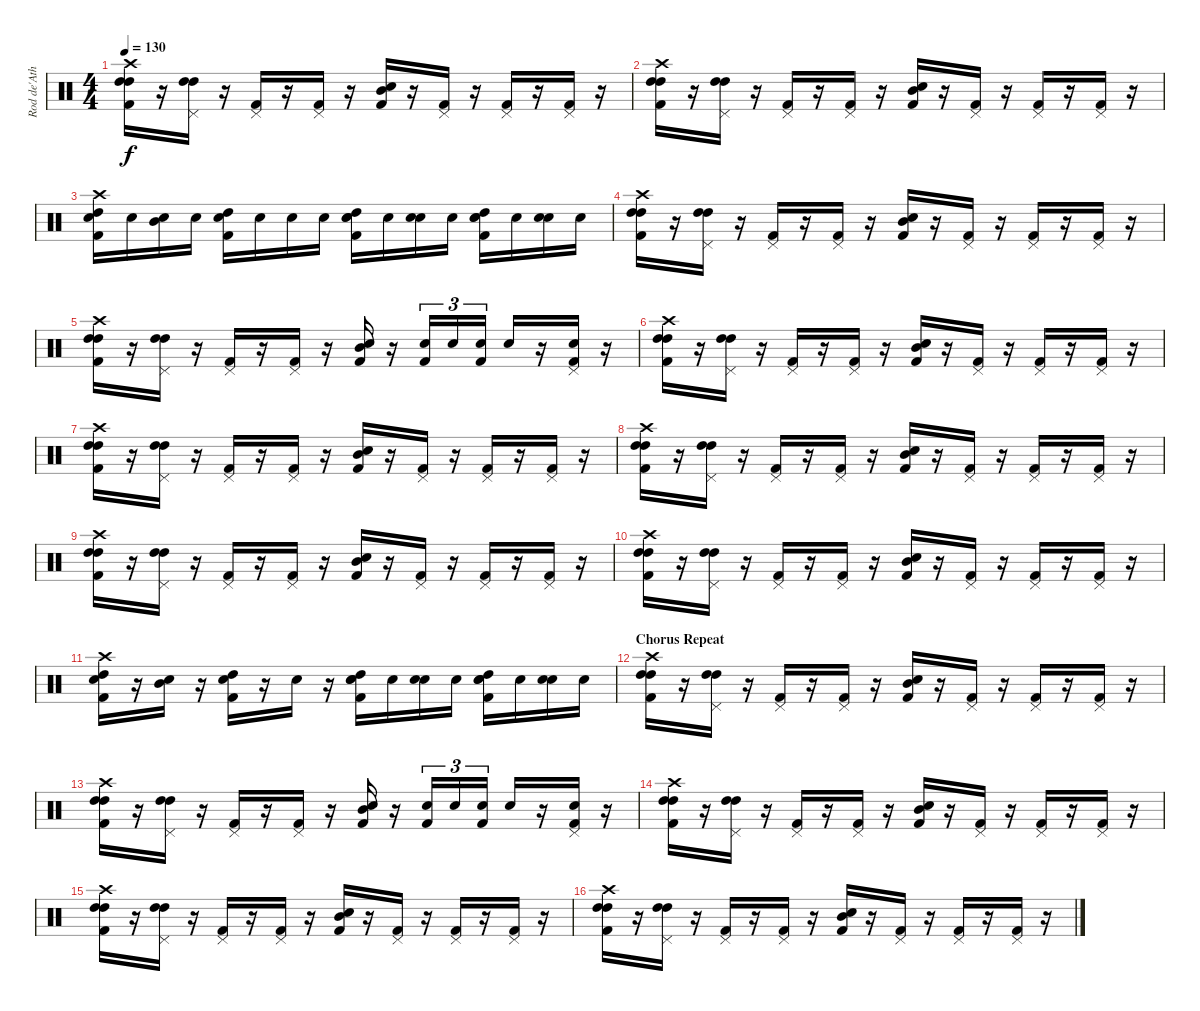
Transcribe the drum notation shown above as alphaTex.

\track ("Rod de'Ath" "Rod de'Ath") {instrument percussion}
\staff {score}
\articulation defaults
\ts (4 4)
\tempo 130
\clef neutral
\ks c
("Crash high (hit)" "High Tom (hit)" "High Tom (hit)" "Kick (hit) 2").16{dy f} r.16 ("Pedal Hi-Hat (hit)" "High Tom (hit)" "High Tom (hit)").16 r.16 ("Pedal Hi-Hat (hit)" "Kick (hit) 2").16 r.16 ("Pedal Hi-Hat (hit)" "Kick (hit) 2").16 r.16 ("Snare (hit) 2" "Mid Tom (hit)" "Kick (hit) 2").16 r.16 ("Pedal Hi-Hat (hit)" "Kick (hit) 2").16 r.16 ("Pedal Hi-Hat (hit)" "Kick (hit) 2").16 r.16 ("Pedal Hi-Hat (hit)" "Kick (hit) 2").16 r.16 |
("Crash high (hit)" "High Tom (hit)" "High Tom (hit)" "Kick (hit) 2").16 r.16 ("Pedal Hi-Hat (hit)" "High Tom (hit)" "High Tom (hit)").16 r.16 ("Pedal Hi-Hat (hit)" "Kick (hit) 2").16 r.16 ("Pedal Hi-Hat (hit)" "Kick (hit) 2").16 r.16 ("Snare (hit) 2" "Mid Tom (hit)" "Kick (hit) 2").16 r.16 ("Pedal Hi-Hat (hit)" "Kick (hit) 2").16 r.16 ("Pedal Hi-Hat (hit)" "Kick (hit) 2").16 r.16 ("Pedal Hi-Hat (hit)" "Kick (hit) 2").16 r.16 |
("Crash high (hit)" "High Tom (hit)" "Snare (hit) 2" "Kick (hit) 2").16 "Snare (hit) 2".16 ("Mid Tom (hit)" "Snare (hit) 2").16 "Snare (hit) 2".16 ("High Tom (hit)" "Snare (hit) 2" "Kick (hit) 2").16 "Snare (hit) 2".16 "Snare (hit) 2".16 "Snare (hit) 2".16 ("Snare (hit) 2" "High Tom (hit)" "Electric Snare (hit)" "Kick (hit) 2").16 "Electric Snare (hit)".16 ("Snare (hit) 2" "Electric Snare (hit)").16 "Electric Snare (hit)".16 ("Snare (hit) 2" "High Tom (hit)" "Electric Snare (hit)" "Kick (hit) 2").16 "Electric Snare (hit)".16 ("Snare (hit) 2" "Electric Snare (hit)").16 "Electric Snare (hit)".16 |
("Crash high (hit)" "High Tom (hit)" "High Tom (hit)" "Kick (hit) 2").16 r.16 ("Pedal Hi-Hat (hit)" "High Tom (hit)" "High Tom (hit)").16 r.16 ("Pedal Hi-Hat (hit)" "Kick (hit) 2").16 r.16 ("Pedal Hi-Hat (hit)" "Kick (hit) 2").16 r.16 ("Snare (hit) 2" "Mid Tom (hit)" "Kick (hit) 2").16 r.16 ("Pedal Hi-Hat (hit)" "Kick (hit) 2").16 r.16 ("Pedal Hi-Hat (hit)" "Kick (hit) 2").16 r.16 ("Pedal Hi-Hat (hit)" "Kick (hit) 2").16 r.16 |
("Crash high (hit)" "High Tom (hit)" "High Tom (hit)" "Kick (hit) 2").16 r.16 ("Pedal Hi-Hat (hit)" "High Tom (hit)" "High Tom (hit)").16 r.16 ("Pedal Hi-Hat (hit)" "Kick (hit) 2").16 r.16 ("Pedal Hi-Hat (hit)" "Kick (hit) 2").16 r.16 ("Snare (hit) 2" "Mid Tom (hit)" "Kick (hit) 2").16 r.16 ("Electric Snare (hit)" "Kick (hit) 2").16{tu (3 2)} "Electric Snare (hit)".16{tu (3 2)} ("Electric Snare (hit)" "Kick (hit) 2").16{tu (3 2)} "Electric Snare (hit)".16 r.16 ("Electric Snare (hit)" "Pedal Hi-Hat (hit)" "Kick (hit) 2").16 r.16 |
("Crash high (hit)" "High Tom (hit)" "High Tom (hit)" "Kick (hit) 2").16 r.16 ("Pedal Hi-Hat (hit)" "High Tom (hit)" "High Tom (hit)").16 r.16 ("Pedal Hi-Hat (hit)" "Kick (hit) 2").16 r.16 ("Pedal Hi-Hat (hit)" "Kick (hit) 2").16 r.16 ("Snare (hit) 2" "Mid Tom (hit)" "Kick (hit) 2").16 r.16 ("Pedal Hi-Hat (hit)" "Kick (hit) 2").16 r.16 ("Pedal Hi-Hat (hit)" "Kick (hit) 2").16 r.16 ("Pedal Hi-Hat (hit)" "Kick (hit) 2").16 r.16 |
("Crash high (hit)" "High Tom (hit)" "High Tom (hit)" "Kick (hit) 2").16 r.16 ("Pedal Hi-Hat (hit)" "High Tom (hit)" "High Tom (hit)").16 r.16 ("Pedal Hi-Hat (hit)" "Kick (hit) 2").16 r.16 ("Pedal Hi-Hat (hit)" "Kick (hit) 2").16 r.16 ("Snare (hit) 2" "Mid Tom (hit)" "Kick (hit) 2").16 r.16 ("Pedal Hi-Hat (hit)" "Kick (hit) 2").16 r.16 ("Pedal Hi-Hat (hit)" "Kick (hit) 2").16 r.16 ("Pedal Hi-Hat (hit)" "Kick (hit) 2").16 r.16 |
("Crash high (hit)" "High Tom (hit)" "High Tom (hit)" "Kick (hit) 2").16 r.16 ("Pedal Hi-Hat (hit)" "High Tom (hit)" "High Tom (hit)").16 r.16 ("Pedal Hi-Hat (hit)" "Kick (hit) 2").16 r.16 ("Pedal Hi-Hat (hit)" "Kick (hit) 2").16 r.16 ("Snare (hit) 2" "Mid Tom (hit)" "Kick (hit) 2").16 r.16 ("Pedal Hi-Hat (hit)" "Kick (hit) 2").16 r.16 ("Pedal Hi-Hat (hit)" "Kick (hit) 2").16 r.16 ("Pedal Hi-Hat (hit)" "Kick (hit) 2").16 r.16 |
("Crash high (hit)" "High Tom (hit)" "High Tom (hit)" "Kick (hit) 2").16 r.16 ("Pedal Hi-Hat (hit)" "High Tom (hit)" "High Tom (hit)").16 r.16 ("Pedal Hi-Hat (hit)" "Kick (hit) 2").16 r.16 ("Pedal Hi-Hat (hit)" "Kick (hit) 2").16 r.16 ("Snare (hit) 2" "Mid Tom (hit)" "Kick (hit) 2").16 r.16 ("Pedal Hi-Hat (hit)" "Kick (hit) 2").16 r.16 ("Pedal Hi-Hat (hit)" "Kick (hit) 2").16 r.16 ("Pedal Hi-Hat (hit)" "Kick (hit) 2").16 r.16 |
("Crash high (hit)" "High Tom (hit)" "High Tom (hit)" "Kick (hit) 2").16 r.16 ("Pedal Hi-Hat (hit)" "High Tom (hit)" "High Tom (hit)").16 r.16 ("Pedal Hi-Hat (hit)" "Kick (hit) 2").16 r.16 ("Pedal Hi-Hat (hit)" "Kick (hit) 2").16 r.16 ("Snare (hit) 2" "Mid Tom (hit)" "Kick (hit) 2").16 r.16 ("Pedal Hi-Hat (hit)" "Kick (hit) 2").16 r.16 ("Pedal Hi-Hat (hit)" "Kick (hit) 2").16 r.16 ("Pedal Hi-Hat (hit)" "Kick (hit) 2").16 r.16 |
("Crash high (hit)" "Snare (hit) 2" "High Tom (hit)" "Kick (hit) 2").16 r.16 ("Snare (hit) 2" "Mid Tom (hit)").16 r.16 ("Snare (hit) 2" "High Tom (hit)" "Kick (hit) 2").16 r.16 "Snare (hit) 2".16 r.16 ("Snare (hit) 2" "High Tom (hit)" "Electric Snare (hit)" "Kick (hit) 2").16 "Electric Snare (hit)".16 ("Snare (hit) 2" "Electric Snare (hit)").16 "Electric Snare (hit)".16 ("Snare (hit) 2" "High Tom (hit)" "Electric Snare (hit)" "Kick (hit) 2").16 "Electric Snare (hit)".16 ("Snare (hit) 2" "Electric Snare (hit)").16 "Electric Snare (hit)".16 |
\section ("" "Chorus Repeat")
("Crash high (hit)" "High Tom (hit)" "High Tom (hit)" "Kick (hit) 2").16 r.16 ("Pedal Hi-Hat (hit)" "High Tom (hit)" "High Tom (hit)").16 r.16 ("Pedal Hi-Hat (hit)" "Kick (hit) 2").16 r.16 ("Pedal Hi-Hat (hit)" "Kick (hit) 2").16 r.16 ("Snare (hit) 2" "Mid Tom (hit)" "Kick (hit) 2").16 r.16 ("Pedal Hi-Hat (hit)" "Kick (hit) 2").16 r.16 ("Pedal Hi-Hat (hit)" "Kick (hit) 2").16 r.16 ("Pedal Hi-Hat (hit)" "Kick (hit) 2").16 r.16 |
("Crash high (hit)" "High Tom (hit)" "High Tom (hit)" "Kick (hit) 2").16 r.16 ("Pedal Hi-Hat (hit)" "High Tom (hit)" "High Tom (hit)").16 r.16 ("Pedal Hi-Hat (hit)" "Kick (hit) 2").16 r.16 ("Pedal Hi-Hat (hit)" "Kick (hit) 2").16 r.16 ("Snare (hit) 2" "Mid Tom (hit)" "Kick (hit) 2").16 r.16 ("Electric Snare (hit)" "Kick (hit) 2").16{tu (3 2)} "Electric Snare (hit)".16{tu (3 2)} ("Electric Snare (hit)" "Kick (hit) 2").16{tu (3 2)} "Electric Snare (hit)".16 r.16 ("Electric Snare (hit)" "Pedal Hi-Hat (hit)" "Kick (hit) 2").16 r.16 |
("Crash high (hit)" "High Tom (hit)" "High Tom (hit)" "Kick (hit) 2").16 r.16 ("Pedal Hi-Hat (hit)" "High Tom (hit)" "High Tom (hit)").16 r.16 ("Pedal Hi-Hat (hit)" "Kick (hit) 2").16 r.16 ("Pedal Hi-Hat (hit)" "Kick (hit) 2").16 r.16 ("Snare (hit) 2" "Mid Tom (hit)" "Kick (hit) 2").16 r.16 ("Pedal Hi-Hat (hit)" "Kick (hit) 2").16 r.16 ("Pedal Hi-Hat (hit)" "Kick (hit) 2").16 r.16 ("Pedal Hi-Hat (hit)" "Kick (hit) 2").16 r.16 |
("Crash high (hit)" "High Tom (hit)" "High Tom (hit)" "Kick (hit) 2").16 r.16 ("Pedal Hi-Hat (hit)" "High Tom (hit)" "High Tom (hit)").16 r.16 ("Pedal Hi-Hat (hit)" "Kick (hit) 2").16 r.16 ("Pedal Hi-Hat (hit)" "Kick (hit) 2").16 r.16 ("Snare (hit) 2" "Mid Tom (hit)" "Kick (hit) 2").16 r.16 ("Pedal Hi-Hat (hit)" "Kick (hit) 2").16 r.16 ("Pedal Hi-Hat (hit)" "Kick (hit) 2").16 r.16 ("Pedal Hi-Hat (hit)" "Kick (hit) 2").16 r.16 |
("Crash high (hit)" "High Tom (hit)" "High Tom (hit)" "Kick (hit) 2").16 r.16 ("Pedal Hi-Hat (hit)" "High Tom (hit)" "High Tom (hit)").16 r.16 ("Pedal Hi-Hat (hit)" "Kick (hit) 2").16 r.16 ("Pedal Hi-Hat (hit)" "Kick (hit) 2").16 r.16 ("Snare (hit) 2" "Mid Tom (hit)" "Kick (hit) 2").16 r.16 ("Pedal Hi-Hat (hit)" "Kick (hit) 2").16 r.16 ("Pedal Hi-Hat (hit)" "Kick (hit) 2").16 r.16 ("Pedal Hi-Hat (hit)" "Kick (hit) 2").16 r.16
